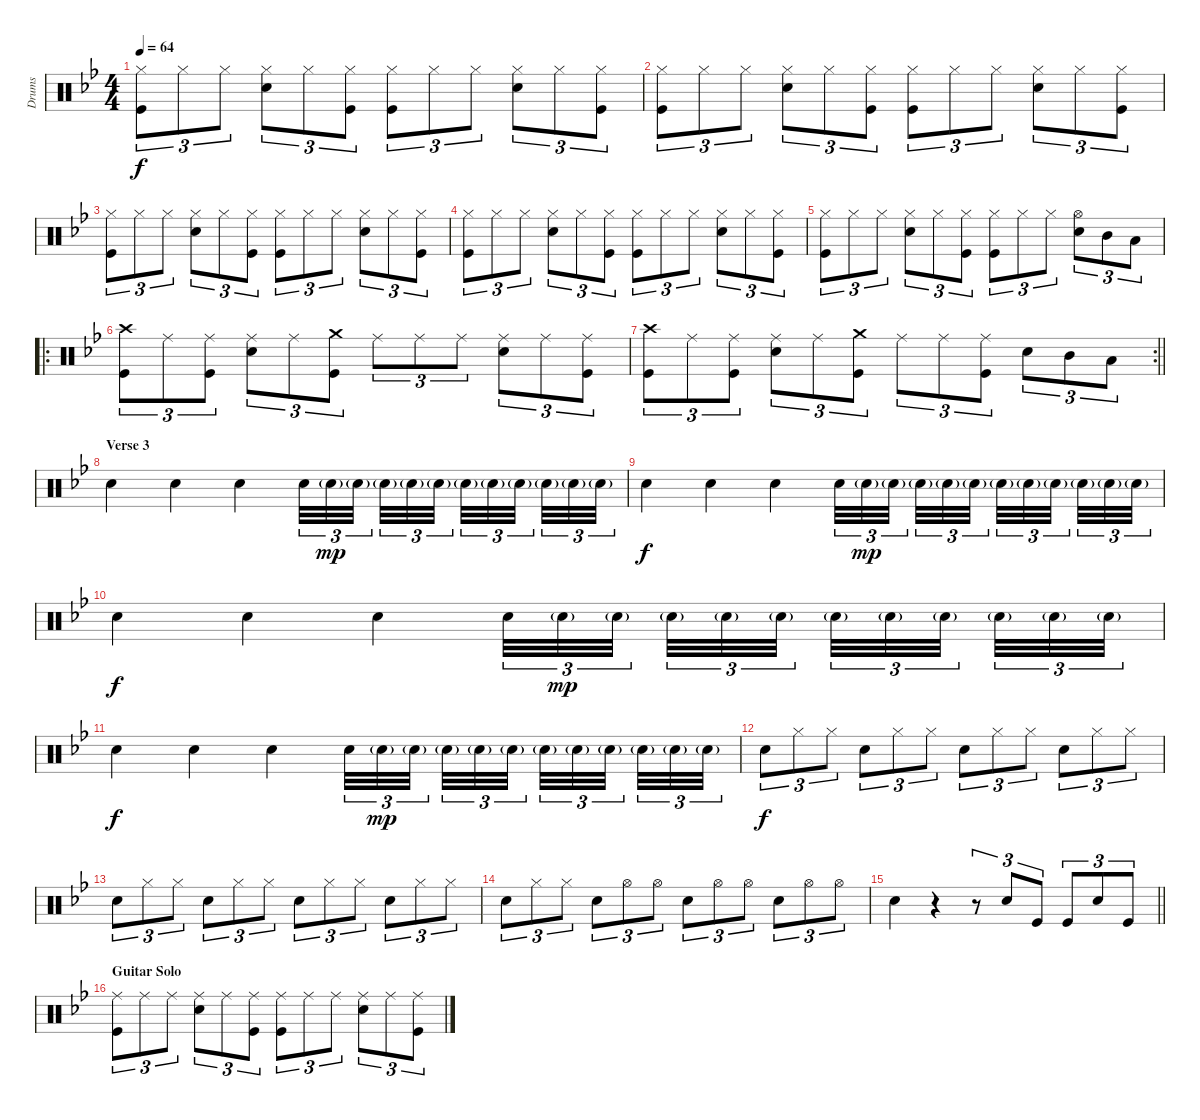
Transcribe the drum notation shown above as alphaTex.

\track ("Drums" "Drums") {instrument percussion}
\staff {score}
\articulation defaults
\ts (4 4)
\tempo 64
\clef neutral
\ks bb
("Hi-Hat (closed)" "Kick (hit)").8{tu (3 2) dy f} "Hi-Hat (closed)".8{tu (3 2)} "Hi-Hat (closed)".8{tu (3 2)} ("Hi-Hat (closed)" "Snare (hit) 2").8{tu (3 2)} "Hi-Hat (closed)".8{tu (3 2)} ("Hi-Hat (closed)" "Kick (hit)").8{tu (3 2)} ("Hi-Hat (closed)" "Kick (hit)").8{tu (3 2)} "Hi-Hat (closed)".8{tu (3 2)} "Hi-Hat (closed)".8{tu (3 2)} ("Hi-Hat (closed)" "Snare (hit) 2").8{tu (3 2)} "Hi-Hat (closed)".8{tu (3 2)} ("Hi-Hat (closed)" "Kick (hit)").8{tu (3 2)} |
("Hi-Hat (closed)" "Kick (hit)").8{tu (3 2)} "Hi-Hat (closed)".8{tu (3 2)} "Hi-Hat (closed)".8{tu (3 2)} ("Hi-Hat (closed)" "Snare (hit) 2").8{tu (3 2)} "Hi-Hat (closed)".8{tu (3 2)} ("Hi-Hat (closed)" "Kick (hit)").8{tu (3 2)} ("Hi-Hat (closed)" "Kick (hit)").8{tu (3 2)} "Hi-Hat (closed)".8{tu (3 2)} "Hi-Hat (closed)".8{tu (3 2)} ("Hi-Hat (closed)" "Snare (hit) 2").8{tu (3 2)} "Hi-Hat (closed)".8{tu (3 2)} ("Hi-Hat (closed)" "Kick (hit)").8{tu (3 2)} |
("Hi-Hat (closed)" "Kick (hit)").8{tu (3 2)} "Hi-Hat (closed)".8{tu (3 2)} "Hi-Hat (closed)".8{tu (3 2)} ("Hi-Hat (closed)" "Snare (hit) 2").8{tu (3 2)} "Hi-Hat (closed)".8{tu (3 2)} ("Hi-Hat (closed)" "Kick (hit)").8{tu (3 2)} ("Hi-Hat (closed)" "Kick (hit)").8{tu (3 2)} "Hi-Hat (closed)".8{tu (3 2)} "Hi-Hat (closed)".8{tu (3 2)} ("Hi-Hat (closed)" "Snare (hit) 2").8{tu (3 2)} "Hi-Hat (closed)".8{tu (3 2)} ("Hi-Hat (closed)" "Kick (hit)").8{tu (3 2)} |
("Hi-Hat (closed)" "Kick (hit)").8{tu (3 2)} "Hi-Hat (closed)".8{tu (3 2)} "Hi-Hat (closed)".8{tu (3 2)} ("Hi-Hat (closed)" "Snare (hit) 2").8{tu (3 2)} "Hi-Hat (closed)".8{tu (3 2)} ("Hi-Hat (closed)" "Kick (hit)").8{tu (3 2)} ("Hi-Hat (closed)" "Kick (hit)").8{tu (3 2)} "Hi-Hat (closed)".8{tu (3 2)} "Hi-Hat (closed)".8{tu (3 2)} ("Hi-Hat (closed)" "Snare (hit) 2").8{tu (3 2)} "Hi-Hat (closed)".8{tu (3 2)} ("Hi-Hat (closed)" "Kick (hit)").8{tu (3 2)} |
("Hi-Hat (closed)" "Kick (hit)").8{tu (3 2)} "Hi-Hat (closed)".8{tu (3 2)} "Hi-Hat (closed)".8{tu (3 2)} ("Hi-Hat (closed)" "Snare (hit) 2").8{tu (3 2)} "Hi-Hat (closed)".8{tu (3 2)} ("Hi-Hat (closed)" "Kick (hit)").8{tu (3 2)} ("Hi-Hat (closed)" "Kick (hit)").8{tu (3 2)} "Hi-Hat (closed)".8{tu (3 2)} "Hi-Hat (closed)".8{tu (3 2)} ("Hi-Hat (open)" "Snare (hit) 2").8{tu (3 2)} "Mid Tom (hit)".8{tu (3 2)} "Low Tom (hit)".8{tu (3 2)} |
\ro
("Crash high (hit)" "Kick (hit)").8{tu (3 2)} "Ride (middle)".8{tu (3 2)} ("Ride (middle)" "Kick (hit)").8{tu (3 2)} ("Ride (middle)" "Snare (hit) 2").8{tu (3 2)} "Ride (middle)".8{tu (3 2)} ("Crash medium (hit)" "Kick (hit)").8{tu (3 2)} "Ride (middle)".8{tu (3 2)} "Ride (middle)".8{tu (3 2)} "Ride (middle)".8{tu (3 2)} ("Ride (middle)" "Snare (hit) 2").8{tu (3 2)} "Ride (middle)".8{tu (3 2)} ("Ride (middle)" "Kick (hit)").8{tu (3 2)} |
\rc 2
\barLineRight lightlight
("Crash high (hit)" "Kick (hit)").8{tu (3 2)} "Ride (middle)".8{tu (3 2)} ("Ride (middle)" "Kick (hit)").8{tu (3 2)} ("Ride (middle)" "Snare (hit) 2").8{tu (3 2)} "Ride (middle)".8{tu (3 2)} ("Crash medium (hit)" "Kick (hit)").8{tu (3 2)} "Ride (middle)".8{tu (3 2)} "Ride (middle)".8{tu (3 2)} ("Ride (middle)" "Kick (hit)").8{tu (3 2)} "Snare (hit) 2".8{tu (3 2)} "Mid Tom (hit)".8{tu (3 2)} "Low Tom (hit)".8{tu (3 2)} |
\section ("" "Verse 3")
"Snare (hit) 2".4 "Snare (hit) 2".4 "Snare (hit) 2".4 "Snare (hit) 2".32{tu (3 2)} "Snare (hit) 2"{g}.32{tu (3 2) dy mp} "Snare (hit) 2"{g}.32{tu (3 2) beam splitsecondary} "Snare (hit) 2"{g}.32{tu (3 2)} "Snare (hit) 2"{g}.32{tu (3 2)} "Snare (hit) 2"{g}.32{tu (3 2) beam splitsecondary} "Snare (hit) 2"{g}.32{tu (3 2)} "Snare (hit) 2"{g}.32{tu (3 2)} "Snare (hit) 2"{g}.32{tu (3 2) beam splitsecondary} "Snare (hit) 2"{g}.32{tu (3 2)} "Snare (hit) 2"{g}.32{tu (3 2)} "Snare (hit) 2"{g}.32{tu (3 2)} |
"Snare (hit) 2".4{dy f} "Snare (hit) 2".4 "Snare (hit) 2".4 "Snare (hit) 2".32{tu (3 2)} "Snare (hit) 2"{g}.32{tu (3 2) dy mp} "Snare (hit) 2"{g}.32{tu (3 2) beam splitsecondary} "Snare (hit) 2"{g}.32{tu (3 2)} "Snare (hit) 2"{g}.32{tu (3 2)} "Snare (hit) 2"{g}.32{tu (3 2) beam splitsecondary} "Snare (hit) 2"{g}.32{tu (3 2)} "Snare (hit) 2"{g}.32{tu (3 2)} "Snare (hit) 2"{g}.32{tu (3 2) beam splitsecondary} "Snare (hit) 2"{g}.32{tu (3 2)} "Snare (hit) 2"{g}.32{tu (3 2)} "Snare (hit) 2"{g}.32{tu (3 2)} |
"Snare (hit) 2".4{dy f} "Snare (hit) 2".4 "Snare (hit) 2".4 "Snare (hit) 2".32{tu (3 2)} "Snare (hit) 2"{g}.32{tu (3 2) dy mp} "Snare (hit) 2"{g}.32{tu (3 2) beam splitsecondary} "Snare (hit) 2"{g}.32{tu (3 2)} "Snare (hit) 2"{g}.32{tu (3 2)} "Snare (hit) 2"{g}.32{tu (3 2) beam splitsecondary} "Snare (hit) 2"{g}.32{tu (3 2)} "Snare (hit) 2"{g}.32{tu (3 2)} "Snare (hit) 2"{g}.32{tu (3 2) beam splitsecondary} "Snare (hit) 2"{g}.32{tu (3 2)} "Snare (hit) 2"{g}.32{tu (3 2)} "Snare (hit) 2"{g}.32{tu (3 2)} |
"Snare (hit) 2".4{dy f} "Snare (hit) 2".4 "Snare (hit) 2".4 "Snare (hit) 2".32{tu (3 2)} "Snare (hit) 2"{g}.32{tu (3 2) dy mp} "Snare (hit) 2"{g}.32{tu (3 2) beam splitsecondary} "Snare (hit) 2"{g}.32{tu (3 2)} "Snare (hit) 2"{g}.32{tu (3 2)} "Snare (hit) 2"{g}.32{tu (3 2) beam splitsecondary} "Snare (hit) 2"{g}.32{tu (3 2)} "Snare (hit) 2"{g}.32{tu (3 2)} "Snare (hit) 2"{g}.32{tu (3 2) beam splitsecondary} "Snare (hit) 2"{g}.32{tu (3 2)} "Snare (hit) 2"{g}.32{tu (3 2)} "Snare (hit) 2"{g}.32{tu (3 2)} |
"Snare (hit) 2".8{tu (3 2) dy f} "Hi-Hat (closed)".8{tu (3 2)} "Hi-Hat (closed)".8{tu (3 2)} "Snare (hit) 2".8{tu (3 2)} "Hi-Hat (closed)".8{tu (3 2)} "Hi-Hat (closed)".8{tu (3 2)} "Snare (hit) 2".8{tu (3 2)} "Hi-Hat (closed)".8{tu (3 2)} "Hi-Hat (closed)".8{tu (3 2)} "Snare (hit) 2".8{tu (3 2)} "Hi-Hat (closed)".8{tu (3 2)} "Hi-Hat (closed)".8{tu (3 2)} |
"Snare (hit) 2".8{tu (3 2)} "Hi-Hat (closed)".8{tu (3 2)} "Hi-Hat (closed)".8{tu (3 2)} "Snare (hit) 2".8{tu (3 2)} "Hi-Hat (closed)".8{tu (3 2)} "Hi-Hat (closed)".8{tu (3 2)} "Snare (hit) 2".8{tu (3 2)} "Hi-Hat (closed)".8{tu (3 2)} "Hi-Hat (closed)".8{tu (3 2)} "Snare (hit) 2".8{tu (3 2)} "Hi-Hat (closed)".8{tu (3 2)} "Hi-Hat (closed)".8{tu (3 2)} |
"Snare (hit) 2".8{tu (3 2)} "Hi-Hat (closed)".8{tu (3 2)} "Hi-Hat (closed)".8{tu (3 2)} "Snare (hit) 2".8{tu (3 2)} "Hi-Hat (open)".8{tu (3 2)} "Hi-Hat (open)".8{tu (3 2)} "Snare (hit) 2".8{tu (3 2)} "Hi-Hat (open)".8{tu (3 2)} "Hi-Hat (open)".8{tu (3 2)} "Snare (hit) 2".8{tu (3 2)} "Hi-Hat (open)".8{tu (3 2)} "Hi-Hat (open)".8{tu (3 2)} |
\barLineRight lightlight "Snare (hit) 2".4
r.4 r.8{tu (3 2)} "Snare (hit) 2".8{tu (3 2)} "Kick (hit)".8{tu (3 2)} "Kick (hit)".8{tu (3 2)} "Snare (hit) 2".8{tu (3 2)} "Kick (hit)".8{tu (3 2)} |
\section ("" "Guitar Solo")
("Ride (middle)" "Kick (hit)").8{tu (3 2)} "Ride (middle)".8{tu (3 2)} "Ride (middle)".8{tu (3 2)} ("Ride (middle)" "Snare (hit) 2").8{tu (3 2)} "Ride (middle)".8{tu (3 2)} ("Ride (middle)" "Kick (hit)").8{tu (3 2)} ("Ride (middle)" "Kick (hit)").8{tu (3 2)} "Ride (middle)".8{tu (3 2)} "Ride (middle)".8{tu (3 2)} ("Ride (middle)" "Snare (hit) 2").8{tu (3 2)} "Ride (middle)".8{tu (3 2)} ("Ride (middle)" "Kick (hit)").8{tu (3 2)}
